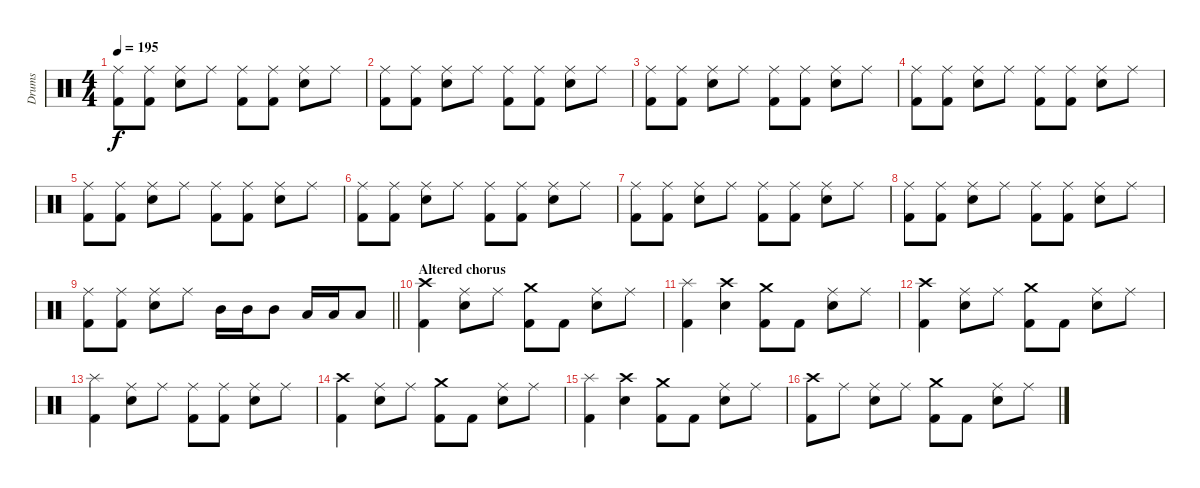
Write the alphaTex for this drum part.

\track ("Drums" "Drums") {instrument percussion}
\staff {score}
\articulation defaults
\ts (4 4)
\tempo 195
\clef neutral
\ks c
("Ride (middle)" "Kick (hit) 2").8{dy f} ("Ride (middle)" "Kick (hit) 2").8 ("Ride (middle)" "Electric Snare (hit)").8 "Ride (middle)".8 ("Ride (middle)" "Kick (hit) 2").8 ("Ride (middle)" "Kick (hit) 2").8 ("Ride (middle)" "Electric Snare (hit)").8 "Ride (middle)".8 |
("Ride (middle)" "Kick (hit) 2").8 ("Ride (middle)" "Kick (hit) 2").8 ("Ride (middle)" "Electric Snare (hit)").8 "Ride (middle)".8 ("Ride (middle)" "Kick (hit) 2").8 ("Ride (middle)" "Kick (hit) 2").8 ("Ride (middle)" "Electric Snare (hit)").8 "Ride (middle)".8 |
("Ride (middle)" "Kick (hit) 2").8 ("Ride (middle)" "Kick (hit) 2").8 ("Ride (middle)" "Electric Snare (hit)").8 "Ride (middle)".8 ("Ride (middle)" "Kick (hit) 2").8 ("Ride (middle)" "Kick (hit) 2").8 ("Ride (middle)" "Electric Snare (hit)").8 "Ride (middle)".8 |
("Ride (middle)" "Kick (hit) 2").8 ("Ride (middle)" "Kick (hit) 2").8 ("Ride (middle)" "Electric Snare (hit)").8 "Ride (middle)".8 ("Ride (middle)" "Kick (hit) 2").8 ("Ride (middle)" "Kick (hit) 2").8 ("Ride (middle)" "Electric Snare (hit)").8 "Ride (middle)".8 |
("Ride (middle)" "Kick (hit) 2").8 ("Ride (middle)" "Kick (hit) 2").8 ("Ride (middle)" "Electric Snare (hit)").8 "Ride (middle)".8 ("Ride (middle)" "Kick (hit) 2").8 ("Ride (middle)" "Kick (hit) 2").8 ("Ride (middle)" "Electric Snare (hit)").8 "Ride (middle)".8 |
("Ride (middle)" "Kick (hit) 2").8 ("Ride (middle)" "Kick (hit) 2").8 ("Ride (middle)" "Electric Snare (hit)").8 "Ride (middle)".8 ("Ride (middle)" "Kick (hit) 2").8 ("Ride (middle)" "Kick (hit) 2").8 ("Ride (middle)" "Electric Snare (hit)").8 "Ride (middle)".8 |
("Ride (middle)" "Kick (hit) 2").8 ("Ride (middle)" "Kick (hit) 2").8 ("Ride (middle)" "Electric Snare (hit)").8 "Ride (middle)".8 ("Ride (middle)" "Kick (hit) 2").8 ("Ride (middle)" "Kick (hit) 2").8 ("Ride (middle)" "Electric Snare (hit)").8 "Ride (middle)".8 |
("Ride (middle)" "Kick (hit) 2").8 ("Ride (middle)" "Kick (hit) 2").8 ("Ride (middle)" "Electric Snare (hit)").8 "Ride (middle)".8 ("Ride (middle)" "Kick (hit) 2").8 ("Ride (middle)" "Kick (hit) 2").8 ("Ride (middle)" "Electric Snare (hit)").8 "Ride (middle)".8 |
\barLineRight lightlight
("Ride (middle)" "Kick (hit) 2").8 ("Ride (middle)" "Kick (hit) 2").8 ("Ride (middle)" "Electric Snare (hit)").8 "Ride (middle)".8 "Mid Tom (hit)".16 "Mid Tom (hit)".16 "Mid Tom (hit)".8 "Low Tom (hit)".16 "Low Tom (hit)".16 "Low Tom (hit)".8 |
\section ("" "Altered chorus")
("Crash high (hit)" "Kick (hit) 2").4 ("Ride (middle)" "Electric Snare (hit)").8 "Ride (middle)".8 ("Crash medium (hit)" "Kick (hit) 2").8 "Kick (hit) 2".8 ("Ride (middle)" "Electric Snare (hit)").8 "Ride (middle)".8 |
("Splash (hit)" "Kick (hit) 2").4 ("Crash high (hit)" "Electric Snare (hit)").4 ("Crash medium (hit)" "Kick (hit) 2").8 "Kick (hit) 2".8 ("Ride (middle)" "Electric Snare (hit)").8 "Ride (middle)".8 |
("Crash high (hit)" "Kick (hit) 2").4 ("Ride (middle)" "Electric Snare (hit)").8 "Ride (middle)".8 ("Crash medium (hit)" "Kick (hit) 2").8 "Kick (hit) 2".8 ("Ride (middle)" "Electric Snare (hit)").8 "Ride (middle)".8 |
("Splash (hit)" "Kick (hit) 2").4 ("Ride (middle)" "Electric Snare (hit)").8 "Ride (middle)".8 ("Ride (middle)" "Kick (hit) 2").8 ("Ride (middle)" "Kick (hit) 2").8 ("Ride (middle)" "Electric Snare (hit)").8 "Ride (middle)".8 |
("Crash high (hit)" "Kick (hit) 2").4 ("Ride (middle)" "Electric Snare (hit)").8 "Ride (middle)".8 ("Crash medium (hit)" "Kick (hit) 2").8 "Kick (hit) 2".8 ("Ride (middle)" "Electric Snare (hit)").8 "Ride (middle)".8 |
("Splash (hit)" "Kick (hit) 2").4 ("Crash high (hit)" "Electric Snare (hit)").4 ("Crash medium (hit)" "Kick (hit) 2").8 "Kick (hit) 2".8 ("Ride (middle)" "Electric Snare (hit)").8 "Ride (middle)".8 |
("Crash high (hit)" "Kick (hit) 2").8 "Ride (middle)".8 ("Ride (middle)" "Electric Snare (hit)").8 "Ride (middle)".8 ("Crash medium (hit)" "Kick (hit) 2").8 "Kick (hit) 2".8 ("Ride (middle)" "Electric Snare (hit)").8 "Ride (middle)".8
